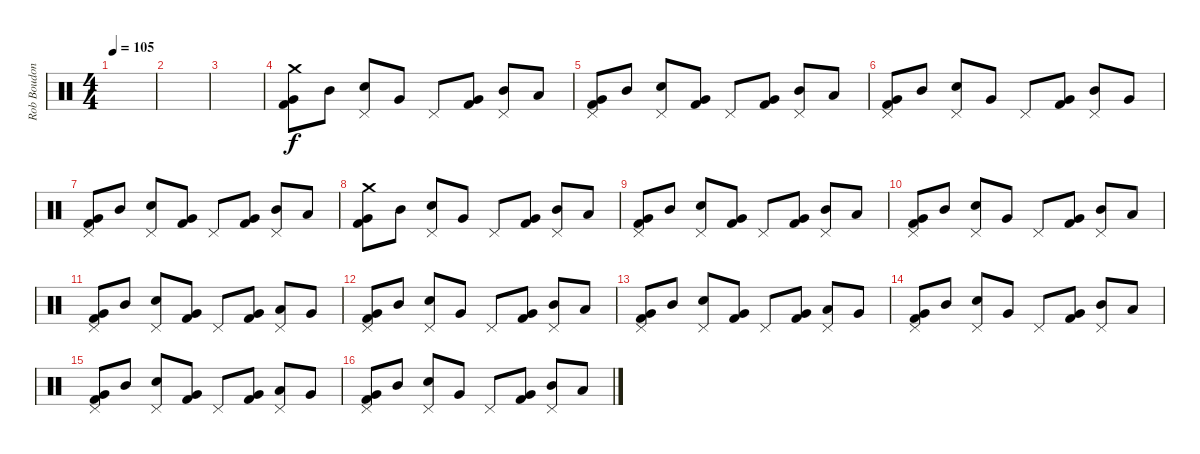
\track ("Rob Boudon [Drums]" "Rob Boudon") {instrument percussion}
\staff {score}
\articulation defaults
\ts (4 4)
\tempo 105
\clef neutral
\ks c
|
|
|
("Crash medium (hit)" "Very Low Tom (hit)" "Kick (hit) 2").8 "Mid Tom (hit)".8 ("Pedal Hi-Hat (hit)" "Snare (hit) 2").8 "Very Low Tom (hit)".8 "Pedal Hi-Hat (hit)".8 ("Very Low Tom (hit)" "Kick (hit) 2").8 ("Pedal Hi-Hat (hit)" "Mid Tom (hit)").8 "Low Tom (hit)".8 |
("Pedal Hi-Hat (hit)" "Very Low Tom (hit)" "Kick (hit) 2").8 "Mid Tom (hit)".8 ("Pedal Hi-Hat (hit)" "Snare (hit) 2").8 ("Very Low Tom (hit)" "Kick (hit) 2").8 "Pedal Hi-Hat (hit)".8 ("Very Low Tom (hit)" "Kick (hit) 2").8 ("Pedal Hi-Hat (hit)" "Mid Tom (hit)").8 "Low Tom (hit)".8 |
("Pedal Hi-Hat (hit)" "Very Low Tom (hit)" "Kick (hit) 2").8 "Mid Tom (hit)".8 ("Pedal Hi-Hat (hit)" "Snare (hit) 2").8 "Very Low Tom (hit)".8 "Pedal Hi-Hat (hit)".8 ("Very Low Tom (hit)" "Kick (hit) 2").8 ("Pedal Hi-Hat (hit)" "Mid Tom (hit)").8 "Very Low Tom (hit)".8 |
("Pedal Hi-Hat (hit)" "Very Low Tom (hit)" "Kick (hit) 2").8 "Mid Tom (hit)".8 ("Pedal Hi-Hat (hit)" "Snare (hit) 2").8 ("Very Low Tom (hit)" "Kick (hit) 2").8 "Pedal Hi-Hat (hit)".8 ("Very Low Tom (hit)" "Kick (hit) 2").8 ("Pedal Hi-Hat (hit)" "Mid Tom (hit)").8 "Low Tom (hit)".8 |
("Crash medium (hit)" "Very Low Tom (hit)" "Kick (hit) 2").8 "Mid Tom (hit)".8 ("Pedal Hi-Hat (hit)" "Snare (hit) 2").8 "Very Low Tom (hit)".8 "Pedal Hi-Hat (hit)".8 ("Very Low Tom (hit)" "Kick (hit) 2").8 ("Pedal Hi-Hat (hit)" "Mid Tom (hit)").8 "Low Tom (hit)".8 |
("Pedal Hi-Hat (hit)" "Very Low Tom (hit)" "Kick (hit) 2").8 "Mid Tom (hit)".8 ("Pedal Hi-Hat (hit)" "Snare (hit) 2").8 ("Very Low Tom (hit)" "Kick (hit) 2").8 "Pedal Hi-Hat (hit)".8 ("Very Low Tom (hit)" "Kick (hit) 2").8 ("Pedal Hi-Hat (hit)" "Mid Tom (hit)").8 "Low Tom (hit)".8 |
("Pedal Hi-Hat (hit)" "Very Low Tom (hit)" "Kick (hit) 2").8 "Mid Tom (hit)".8 ("Pedal Hi-Hat (hit)" "Snare (hit) 2").8 "Very Low Tom (hit)".8 "Pedal Hi-Hat (hit)".8 ("Very Low Tom (hit)" "Kick (hit) 2").8 ("Pedal Hi-Hat (hit)" "Mid Tom (hit)").8 "Low Tom (hit)".8 |
("Pedal Hi-Hat (hit)" "Very Low Tom (hit)" "Kick (hit) 2").8 "Mid Tom (hit)".8 ("Pedal Hi-Hat (hit)" "Snare (hit) 2").8 ("Very Low Tom (hit)" "Kick (hit) 2").8 "Pedal Hi-Hat (hit)".8 ("Very Low Tom (hit)" "Kick (hit) 2").8 ("Pedal Hi-Hat (hit)" "Low Tom (hit)").8 "Very Low Tom (hit)".8 |
("Pedal Hi-Hat (hit)" "Very Low Tom (hit)" "Kick (hit) 2").8 "Mid Tom (hit)".8 ("Pedal Hi-Hat (hit)" "Snare (hit) 2").8 "Very Low Tom (hit)".8 "Pedal Hi-Hat (hit)".8 ("Very Low Tom (hit)" "Kick (hit) 2").8 ("Pedal Hi-Hat (hit)" "Mid Tom (hit)").8 "Low Tom (hit)".8 |
("Pedal Hi-Hat (hit)" "Very Low Tom (hit)" "Kick (hit) 2").8 "Mid Tom (hit)".8 ("Pedal Hi-Hat (hit)" "Snare (hit) 2").8 ("Very Low Tom (hit)" "Kick (hit) 2").8 "Pedal Hi-Hat (hit)".8 ("Very Low Tom (hit)" "Kick (hit) 2").8 ("Pedal Hi-Hat (hit)" "Low Tom (hit)").8 "Very Low Tom (hit)".8 |
("Pedal Hi-Hat (hit)" "Very Low Tom (hit)" "Kick (hit) 2").8 "Mid Tom (hit)".8 ("Pedal Hi-Hat (hit)" "Snare (hit) 2").8 "Very Low Tom (hit)".8 "Pedal Hi-Hat (hit)".8 ("Very Low Tom (hit)" "Kick (hit) 2").8 ("Pedal Hi-Hat (hit)" "Mid Tom (hit)").8 "Low Tom (hit)".8 |
("Pedal Hi-Hat (hit)" "Very Low Tom (hit)" "Kick (hit) 2").8 "Mid Tom (hit)".8 ("Pedal Hi-Hat (hit)" "Snare (hit) 2").8 ("Very Low Tom (hit)" "Kick (hit) 2").8 "Pedal Hi-Hat (hit)".8 ("Very Low Tom (hit)" "Kick (hit) 2").8 ("Pedal Hi-Hat (hit)" "Low Tom (hit)").8 "Very Low Tom (hit)".8 |
("Pedal Hi-Hat (hit)" "Very Low Tom (hit)" "Kick (hit) 2").8 "Mid Tom (hit)".8 ("Pedal Hi-Hat (hit)" "Snare (hit) 2").8 "Very Low Tom (hit)".8 "Pedal Hi-Hat (hit)".8 ("Very Low Tom (hit)" "Kick (hit) 2").8 ("Pedal Hi-Hat (hit)" "Mid Tom (hit)").8 "Low Tom (hit)".8
